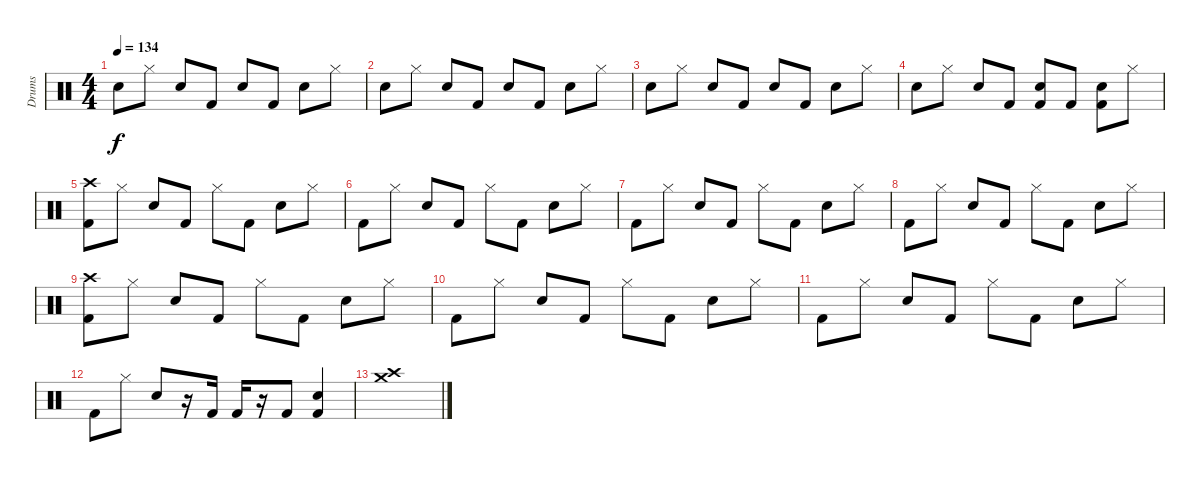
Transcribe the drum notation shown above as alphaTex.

\track ("Drums" "Drums") {instrument percussion}
\staff {score}
\articulation defaults
\ts (4 4)
\tempo 134
\clef neutral
\ks c "Electric Snare (hit)".8{dy f} "Hi-Hat (closed)".8 "Electric Snare (hit)".8 "Kick (hit) 2".8 "Electric Snare (hit)".8 "Kick (hit) 2".8 "Electric Snare (hit)".8 "Hi-Hat (closed)".8
|
"Electric Snare (hit)".8 "Hi-Hat (closed)".8 "Electric Snare (hit)".8 "Kick (hit) 2".8 "Electric Snare (hit)".8 "Kick (hit) 2".8 "Electric Snare (hit)".8 "Hi-Hat (closed)".8 |
"Electric Snare (hit)".8 "Hi-Hat (closed)".8 "Electric Snare (hit)".8 "Kick (hit) 2".8 "Electric Snare (hit)".8 "Kick (hit) 2".8 "Electric Snare (hit)".8 "Hi-Hat (closed)".8 |
"Electric Snare (hit)".8 "Hi-Hat (closed)".8 "Electric Snare (hit)".8 "Kick (hit) 2".8 ("Electric Snare (hit)" "Kick (hit) 2").8 "Kick (hit) 2".8 ("Electric Snare (hit)" "Kick (hit) 2").8 "Hi-Hat (closed)".8 |
("Crash high (hit)" "Kick (hit) 2").8 "Hi-Hat (closed)".8 "Electric Snare (hit)".8 "Kick (hit) 2".8 "Hi-Hat (closed)".8 "Kick (hit) 2".8 "Electric Snare (hit)".8 "Hi-Hat (closed)".8 |
"Kick (hit) 2".8 "Hi-Hat (closed)".8 "Electric Snare (hit)".8 "Kick (hit) 2".8 "Hi-Hat (closed)".8 "Kick (hit) 2".8 "Electric Snare (hit)".8 "Hi-Hat (closed)".8 |
"Kick (hit) 2".8 "Hi-Hat (closed)".8 "Electric Snare (hit)".8 "Kick (hit) 2".8 "Hi-Hat (closed)".8 "Kick (hit) 2".8 "Electric Snare (hit)".8 "Hi-Hat (closed)".8 |
"Kick (hit) 2".8 "Hi-Hat (closed)".8 "Electric Snare (hit)".8 "Kick (hit) 2".8 "Hi-Hat (closed)".8 "Kick (hit) 2".8 "Electric Snare (hit)".8 "Hi-Hat (closed)".8 |
("Crash high (hit)" "Kick (hit) 2").8 "Hi-Hat (closed)".8 "Electric Snare (hit)".8 "Kick (hit) 2".8 "Hi-Hat (closed)".8 "Kick (hit) 2".8 "Electric Snare (hit)".8 "Hi-Hat (closed)".8 |
"Kick (hit) 2".8 "Hi-Hat (closed)".8 "Electric Snare (hit)".8 "Kick (hit) 2".8 "Hi-Hat (closed)".8 "Kick (hit) 2".8 "Electric Snare (hit)".8 "Hi-Hat (closed)".8 |
"Kick (hit) 2".8 "Hi-Hat (closed)".8 "Electric Snare (hit)".8 "Kick (hit) 2".8 "Hi-Hat (closed)".8 "Kick (hit) 2".8 "Electric Snare (hit)".8 "Hi-Hat (closed)".8 |
"Kick (hit) 2".8 "Hi-Hat (closed)".8 "Electric Snare (hit)".8 r.16 "Kick (hit) 2".16 "Kick (hit) 2".16 r.16 "Kick (hit) 2".8 ("Electric Snare (hit)" "Kick (hit) 2").4 |
("Crash medium (hit)" "Crash high (hit)").1
